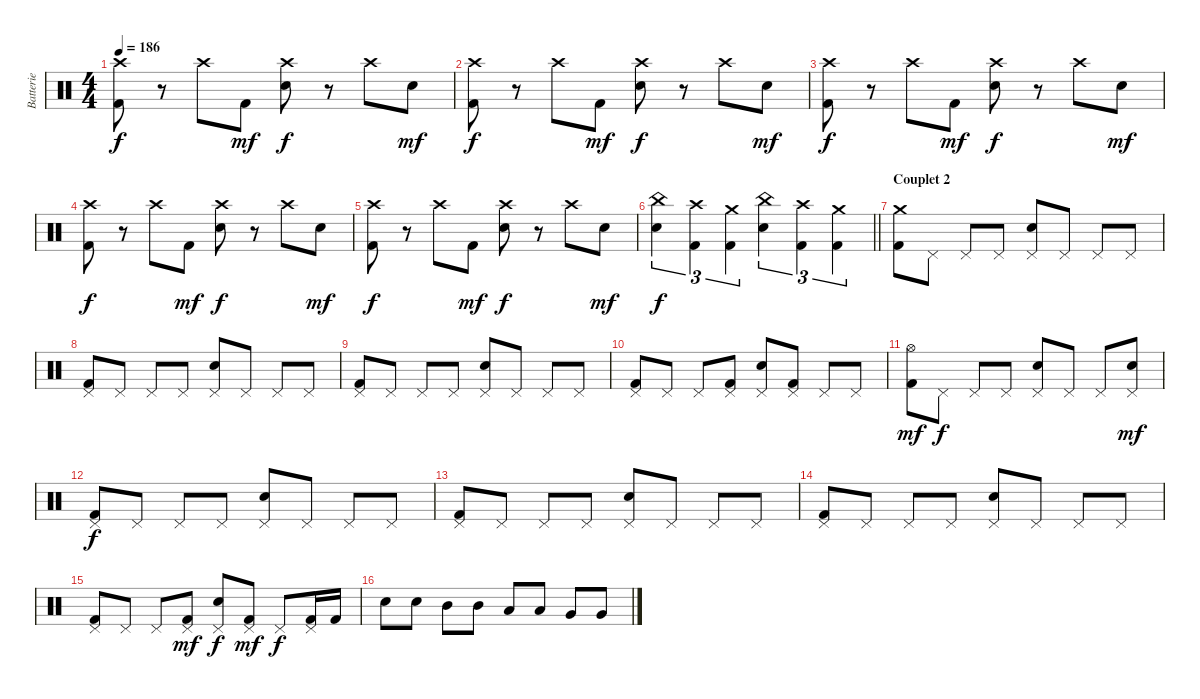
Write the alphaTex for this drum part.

\track ("Batterie" "Batterie") {instrument percussion}
\staff {score}
\articulation defaults
\ts (4 4)
\tempo 186
\clef neutral
\ks c
("Kick (hit) 2" "Crash high (hit)").8{dy f} r.8 "Crash high (hit)".8 "Kick (hit) 2".8{dy mf} ("Electric Snare (hit)" "Crash high (hit)").8{dy f} r.8 "Crash high (hit)".8 "Electric Snare (hit)".8{dy mf} |
("Kick (hit) 2" "Crash high (hit)").8{dy f} r.8 "Crash high (hit)".8 "Kick (hit) 2".8{dy mf} ("Electric Snare (hit)" "Crash high (hit)").8{dy f} r.8 "Crash high (hit)".8 "Electric Snare (hit)".8{dy mf} |
("Kick (hit) 2" "Crash high (hit)").8{dy f} r.8 "Crash high (hit)".8 "Kick (hit) 2".8{dy mf} ("Electric Snare (hit)" "Crash high (hit)").8{dy f} r.8 "Crash high (hit)".8 "Electric Snare (hit)".8{dy mf} |
("Kick (hit) 2" "Crash high (hit)").8{dy f} r.8 "Crash high (hit)".8 "Kick (hit) 2".8{dy mf} ("Electric Snare (hit)" "Crash high (hit)").8{dy f} r.8 "Crash high (hit)".8 "Electric Snare (hit)".8{dy mf} |
("Kick (hit) 2" "Crash high (hit)").8{dy f} r.8 "Crash high (hit)".8 "Kick (hit) 2".8{dy mf} ("Electric Snare (hit)" "Crash high (hit)").8{dy f} r.8 "Crash high (hit)".8 "Electric Snare (hit)".8{dy mf} |
\barLineRight lightlight
("Electric Snare (hit)" "China (hit)").4{tu (3 2) dy f} ("Kick (hit) 2" "Crash high (hit)").4{tu (3 2)} ("Kick (hit) 2" "Crash medium (hit)").4{tu (3 2)} ("Electric Snare (hit)" "China (hit)").4{tu (3 2)} ("Kick (hit) 2" "Crash high (hit)").4{tu (3 2)} ("Kick (hit) 2" "Crash medium (hit)").4{tu (3 2)} |
\section ("" "Couplet 2")
("Kick (hit) 2" "Crash medium (hit)").8 "Pedal Hi-Hat (hit)".8 "Pedal Hi-Hat (hit)".8 "Pedal Hi-Hat (hit)".8 ("Electric Snare (hit)" "Pedal Hi-Hat (hit)").8 "Pedal Hi-Hat (hit)".8 "Pedal Hi-Hat (hit)".8 "Pedal Hi-Hat (hit)".8 |
("Kick (hit) 2" "Pedal Hi-Hat (hit)").8 "Pedal Hi-Hat (hit)".8 "Pedal Hi-Hat (hit)".8 "Pedal Hi-Hat (hit)".8 ("Electric Snare (hit)" "Pedal Hi-Hat (hit)").8 "Pedal Hi-Hat (hit)".8 "Pedal Hi-Hat (hit)".8 "Pedal Hi-Hat (hit)".8 |
("Kick (hit) 2" "Pedal Hi-Hat (hit)").8 "Pedal Hi-Hat (hit)".8 "Pedal Hi-Hat (hit)".8 "Pedal Hi-Hat (hit)".8 ("Electric Snare (hit)" "Pedal Hi-Hat (hit)").8 "Pedal Hi-Hat (hit)".8 "Pedal Hi-Hat (hit)".8 "Pedal Hi-Hat (hit)".8 |
("Kick (hit) 2" "Pedal Hi-Hat (hit)").8 "Pedal Hi-Hat (hit)".8 "Pedal Hi-Hat (hit)".8 ("Kick (hit) 2" "Pedal Hi-Hat (hit)").8 ("Electric Snare (hit)" "Pedal Hi-Hat (hit)").8 ("Kick (hit) 2" "Pedal Hi-Hat (hit)").8 "Pedal Hi-Hat (hit)".8 "Pedal Hi-Hat (hit)".8 |
("Kick (hit) 2" "Hi-Hat (open)").8{dy mf} "Pedal Hi-Hat (hit)".8{dy f} "Pedal Hi-Hat (hit)".8 "Pedal Hi-Hat (hit)".8 ("Electric Snare (hit)" "Pedal Hi-Hat (hit)").8 "Pedal Hi-Hat (hit)".8 "Pedal Hi-Hat (hit)".8 ("Electric Snare (hit)" "Pedal Hi-Hat (hit)").8{dy mf} |
("Kick (hit) 2" "Pedal Hi-Hat (hit)").8{dy f} "Pedal Hi-Hat (hit)".8 "Pedal Hi-Hat (hit)".8 "Pedal Hi-Hat (hit)".8 ("Electric Snare (hit)" "Pedal Hi-Hat (hit)").8 "Pedal Hi-Hat (hit)".8 "Pedal Hi-Hat (hit)".8 "Pedal Hi-Hat (hit)".8 |
("Kick (hit) 2" "Pedal Hi-Hat (hit)").8 "Pedal Hi-Hat (hit)".8 "Pedal Hi-Hat (hit)".8 "Pedal Hi-Hat (hit)".8 ("Electric Snare (hit)" "Pedal Hi-Hat (hit)").8 "Pedal Hi-Hat (hit)".8 "Pedal Hi-Hat (hit)".8 "Pedal Hi-Hat (hit)".8 |
("Kick (hit) 2" "Pedal Hi-Hat (hit)").8 "Pedal Hi-Hat (hit)".8 "Pedal Hi-Hat (hit)".8 "Pedal Hi-Hat (hit)".8 ("Electric Snare (hit)" "Pedal Hi-Hat (hit)").8 "Pedal Hi-Hat (hit)".8 "Pedal Hi-Hat (hit)".8 "Pedal Hi-Hat (hit)".8 |
("Kick (hit) 2" "Pedal Hi-Hat (hit)").8 "Pedal Hi-Hat (hit)".8 "Pedal Hi-Hat (hit)".8 ("Kick (hit) 2" "Pedal Hi-Hat (hit)").8{dy mf} ("Electric Snare (hit)" "Pedal Hi-Hat (hit)").8{dy f} ("Kick (hit) 2" "Pedal Hi-Hat (hit)").8{dy mf} "Pedal Hi-Hat (hit)".8{dy f} ("Kick (hit) 2" "Pedal Hi-Hat (hit)").16 "Kick (hit) 2".16 |
"Electric Snare (hit)".8 "Electric Snare (hit)".8 "Mid Tom (hit)".8 "Mid Tom (hit)".8 "Low Tom (hit)".8 "Low Tom (hit)".8 "Very Low Tom (hit)".8 "Very Low Tom (hit)".8
